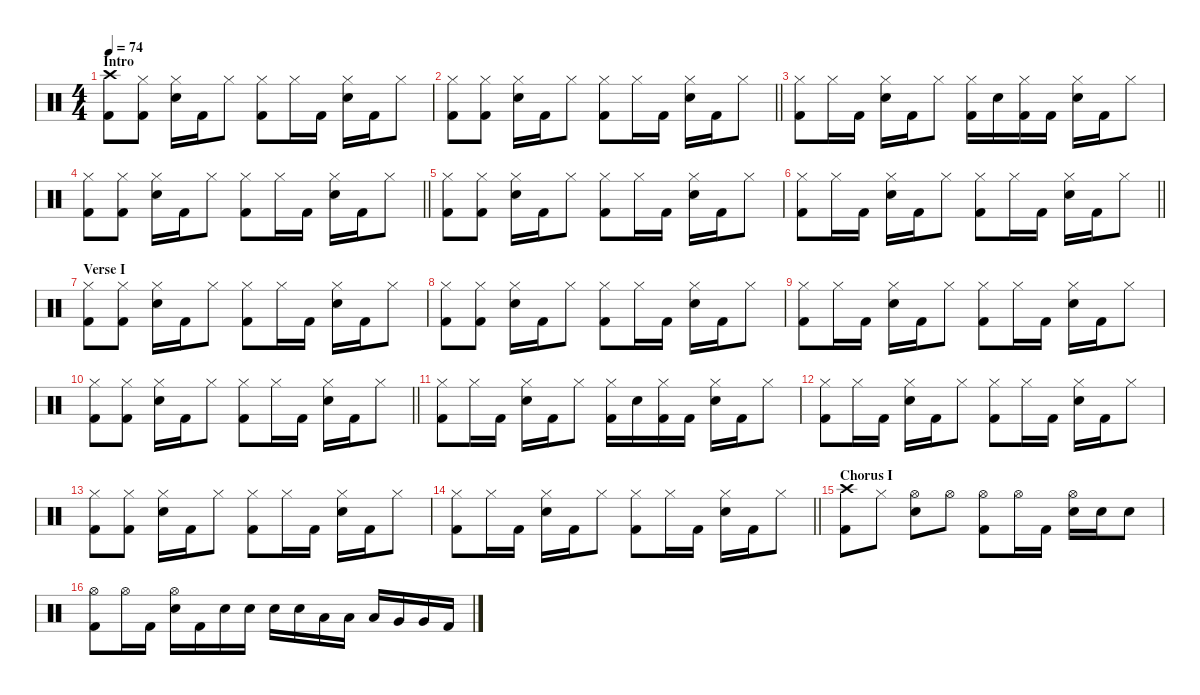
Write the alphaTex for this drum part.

\defaultSystemsLayout 4
\hideDynamics
\bracketExtendMode nobrackets
\singleTrackTrackNamePolicy hidden
\multiTrackTrackNamePolicy hidden
\firstSystemTrackNameMode fullname
\firstSystemTrackNameOrientation horizontal
\otherSystemsTrackNameOrientation horizontal
\track ("Bill Ward" "drm.") {instrument percussion}
\staff {score}
\articulation defaults
\ts (4 4)
\beaming (8 2 2 2 2)
\section ("" "Intro")
\tempo 74
\clef neutral
\ks c
("Kick (hit) 2" "Crash high (hit)").8{dy f beam Down} ("Kick (hit) 2" "Hi-Hat (closed)").8{beam Down} ("Snare (hit) 2" "Hi-Hat (closed)").16{beam Down} "Kick (hit) 2".16{beam Down} "Hi-Hat (closed)".8{beam Down} ("Kick (hit) 2" "Hi-Hat (closed)").8{beam Down} "Hi-Hat (closed)".16{beam Down} "Kick (hit) 2".16{beam Down} ("Snare (hit) 2" "Hi-Hat (closed)").16{beam Down} "Kick (hit) 2".16{beam Down} "Hi-Hat (closed)".8{beam Down} |
\barLineRight lightlight
("Kick (hit) 2" "Hi-Hat (closed)").8{beam Down} ("Kick (hit) 2" "Hi-Hat (closed)").8{beam Down} ("Snare (hit) 2" "Hi-Hat (closed)").16{beam Down} "Kick (hit) 2".16{beam Down} "Hi-Hat (closed)".8{beam Down} ("Kick (hit) 2" "Hi-Hat (closed)").8{beam Down} "Hi-Hat (closed)".16{beam Down} "Kick (hit) 2".16{beam Down} ("Snare (hit) 2" "Hi-Hat (closed)").16{beam Down} "Kick (hit) 2".16{beam Down} "Hi-Hat (closed)".8{beam Down} |
("Kick (hit) 2" "Hi-Hat (closed)").8{beam Down} "Hi-Hat (closed)".16{beam Down} "Kick (hit) 2".16{beam Down} ("Snare (hit) 2" "Hi-Hat (closed)").16{beam Down} "Kick (hit) 2".16{beam Down} "Hi-Hat (closed)".8{beam Down} ("Kick (hit) 2" "Hi-Hat (closed)").16{beam Down} "Snare (hit) 2".16{beam Down} ("Kick (hit) 2" "Hi-Hat (closed)").16{beam Down} "Kick (hit) 2".16{beam Down} ("Snare (hit) 2" "Hi-Hat (closed)").16{beam Down} "Kick (hit) 2".16{beam Down} "Hi-Hat (closed)".8{beam Down} |
\barLineRight lightlight
("Kick (hit) 2" "Hi-Hat (closed)").8{beam Down} ("Kick (hit) 2" "Hi-Hat (closed)").8{beam Down} ("Snare (hit) 2" "Hi-Hat (closed)").16{beam Down} "Kick (hit) 2".16{beam Down} "Hi-Hat (closed)".8{beam Down} ("Kick (hit) 2" "Hi-Hat (closed)").8{beam Down} "Hi-Hat (closed)".16{beam Down} "Kick (hit) 2".16{beam Down} ("Snare (hit) 2" "Hi-Hat (closed)").16{beam Down} "Kick (hit) 2".16{beam Down} "Hi-Hat (closed)".8{beam Down} |
("Kick (hit) 2" "Hi-Hat (closed)").8{beam Down} ("Kick (hit) 2" "Hi-Hat (closed)").8{beam Down} ("Snare (hit) 2" "Hi-Hat (closed)").16{beam Down} "Kick (hit) 2".16{beam Down} "Hi-Hat (closed)".8{beam Down} ("Kick (hit) 2" "Hi-Hat (closed)").8{beam Down} "Hi-Hat (closed)".16{beam Down} "Kick (hit) 2".16{beam Down} ("Snare (hit) 2" "Hi-Hat (closed)").16{beam Down} "Kick (hit) 2".16{beam Down} "Hi-Hat (closed)".8{beam Down} |
\barLineRight lightlight
("Kick (hit) 2" "Hi-Hat (closed)").8{beam Down} "Hi-Hat (closed)".16{beam Down} "Kick (hit) 2".16{beam Down} ("Snare (hit) 2" "Hi-Hat (closed)").16{beam Down} "Kick (hit) 2".16{beam Down} "Hi-Hat (closed)".8{beam Down} ("Kick (hit) 2" "Hi-Hat (closed)").8{beam Down} "Hi-Hat (closed)".16{beam Down} "Kick (hit) 2".16{beam Down} ("Snare (hit) 2" "Hi-Hat (closed)").16{beam Down} "Kick (hit) 2".16{beam Down} "Hi-Hat (closed)".8{beam Down} |
\section ("" "Verse I")
("Kick (hit) 2" "Hi-Hat (closed)").8{beam Down} ("Kick (hit) 2" "Hi-Hat (closed)").8{beam Down} ("Snare (hit) 2" "Hi-Hat (closed)").16{beam Down} "Kick (hit) 2".16{beam Down} "Hi-Hat (closed)".8{beam Down} ("Kick (hit) 2" "Hi-Hat (closed)").8{beam Down} "Hi-Hat (closed)".16{beam Down} "Kick (hit) 2".16{beam Down} ("Snare (hit) 2" "Hi-Hat (closed)").16{beam Down} "Kick (hit) 2".16{beam Down} "Hi-Hat (closed)".8{beam Down} |
("Kick (hit) 2" "Hi-Hat (closed)").8{beam Down} ("Kick (hit) 2" "Hi-Hat (closed)").8{beam Down} ("Snare (hit) 2" "Hi-Hat (closed)").16{beam Down} "Kick (hit) 2".16{beam Down} "Hi-Hat (closed)".8{beam Down} ("Kick (hit) 2" "Hi-Hat (closed)").8{beam Down} "Hi-Hat (closed)".16{beam Down} "Kick (hit) 2".16{beam Down} ("Snare (hit) 2" "Hi-Hat (closed)").16{beam Down} "Kick (hit) 2".16{beam Down} "Hi-Hat (closed)".8{beam Down} |
("Kick (hit) 2" "Hi-Hat (closed)").8{beam Down} "Hi-Hat (closed)".16{beam Down} "Kick (hit) 2".16{beam Down} ("Snare (hit) 2" "Hi-Hat (closed)").16{beam Down} "Kick (hit) 2".16{beam Down} "Hi-Hat (closed)".8{beam Down} ("Kick (hit) 2" "Hi-Hat (closed)").8{beam Down} "Hi-Hat (closed)".16{beam Down} "Kick (hit) 2".16{beam Down} ("Snare (hit) 2" "Hi-Hat (closed)").16{beam Down} "Kick (hit) 2".16{beam Down} "Hi-Hat (closed)".8{beam Down} |
\barLineRight lightlight
("Kick (hit) 2" "Hi-Hat (closed)").8{beam Down} ("Kick (hit) 2" "Hi-Hat (closed)").8{beam Down} ("Snare (hit) 2" "Hi-Hat (closed)").16{beam Down} "Kick (hit) 2".16{beam Down} "Hi-Hat (closed)".8{beam Down} ("Kick (hit) 2" "Hi-Hat (closed)").8{beam Down} "Hi-Hat (closed)".16{beam Down} "Kick (hit) 2".16{beam Down} ("Snare (hit) 2" "Hi-Hat (closed)").16{beam Down} "Kick (hit) 2".16{beam Down} "Hi-Hat (closed)".8{beam Down} |
("Kick (hit) 2" "Hi-Hat (closed)").8{beam Down} "Hi-Hat (closed)".16{beam Down} "Kick (hit) 2".16{beam Down} ("Snare (hit) 2" "Hi-Hat (closed)").16{beam Down} "Kick (hit) 2".16{beam Down} "Hi-Hat (closed)".8{beam Down} ("Kick (hit) 2" "Hi-Hat (closed)").16{beam Down} "Snare (hit) 2".16{beam Down} ("Kick (hit) 2" "Hi-Hat (closed)").16{beam Down} "Kick (hit) 2".16{beam Down} ("Snare (hit) 2" "Hi-Hat (closed)").16{beam Down} "Kick (hit) 2".16{beam Down} "Hi-Hat (closed)".8{beam Down} |
("Kick (hit) 2" "Hi-Hat (closed)").8{beam Down} "Hi-Hat (closed)".16{beam Down} "Kick (hit) 2".16{beam Down} ("Snare (hit) 2" "Hi-Hat (closed)").16{beam Down} "Kick (hit) 2".16{beam Down} "Hi-Hat (closed)".8{beam Down} ("Kick (hit) 2" "Hi-Hat (closed)").8{beam Down} "Hi-Hat (closed)".16{beam Down} "Kick (hit) 2".16{beam Down} ("Snare (hit) 2" "Hi-Hat (closed)").16{beam Down} "Kick (hit) 2".16{beam Down} "Hi-Hat (closed)".8{beam Down} |
("Kick (hit) 2" "Hi-Hat (closed)").8{beam Down} ("Kick (hit) 2" "Hi-Hat (closed)").8{beam Down} ("Snare (hit) 2" "Hi-Hat (closed)").16{beam Down} "Kick (hit) 2".16{beam Down} "Hi-Hat (closed)".8{beam Down} ("Kick (hit) 2" "Hi-Hat (closed)").8{beam Down} "Hi-Hat (closed)".16{beam Down} "Kick (hit) 2".16{beam Down} ("Snare (hit) 2" "Hi-Hat (closed)").16{beam Down} "Kick (hit) 2".16{beam Down} "Hi-Hat (closed)".8{beam Down} |
\barLineRight lightlight
("Kick (hit) 2" "Hi-Hat (closed)").8{beam Down} "Hi-Hat (closed)".16{beam Down} "Kick (hit) 2".16{beam Down} ("Snare (hit) 2" "Hi-Hat (closed)").16{beam Down} "Kick (hit) 2".16{beam Down} "Hi-Hat (closed)".8{beam Down} ("Kick (hit) 2" "Hi-Hat (closed)").8{beam Down} "Hi-Hat (closed)".16{beam Down} "Kick (hit) 2".16{beam Down} ("Snare (hit) 2" "Hi-Hat (closed)").16{beam Down} "Kick (hit) 2".16{beam Down} "Hi-Hat (closed)".8{beam Down} |
\section ("" "Chorus I")
("Kick (hit) 2" "Crash high (hit)").8{beam Down} "Hi-Hat (closed)".8{beam Down} ("Snare (hit) 2" "Hi-Hat (open)").8{beam Down} "Hi-Hat (open)".8{beam Down} ("Kick (hit) 2" "Hi-Hat (open)").8{beam Down} "Hi-Hat (open)".16{beam Down} "Kick (hit) 2".16{beam Down} ("Snare (hit) 2" "Hi-Hat (open)").16{beam Down} "Snare (hit) 2".16{beam Down} "Snare (hit) 2".8{beam Down} |
("Kick (hit) 2" "Hi-Hat (open)").8{beam Down} "Hi-Hat (open)".16{beam Down} "Kick (hit) 2".16{beam Down} ("Snare (hit) 2" "Hi-Hat (open)").16{beam Down} "Kick (hit) 2".16{beam Down} "Snare (hit) 2".16{beam Down} "Snare (hit) 2".16{beam Down} "Snare (hit) 2".16{beam Down} "Snare (hit) 2".16{beam Down} "Low Tom (hit)".16{beam Down} "Low Tom (hit)".16{beam Down} "Low Tom (hit)".16{beam Up} "Very Low Tom (hit)".16{beam Up} "Very Low Tom (hit)".16{beam Up} "Kick (hit) 2".16{beam Up}
